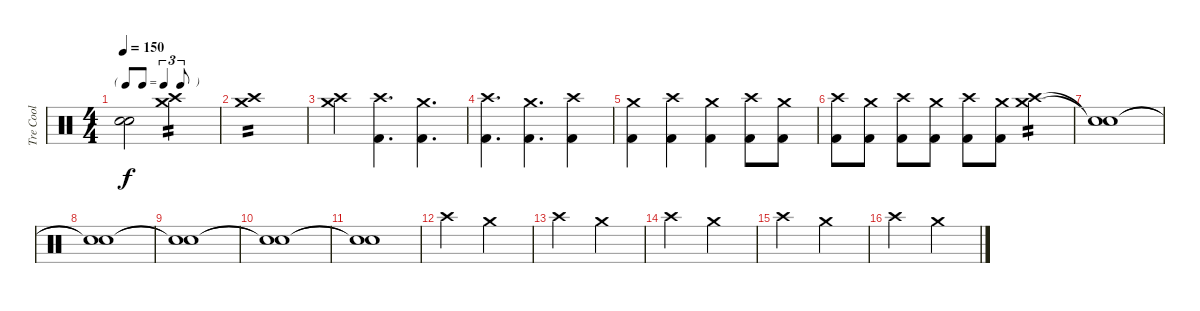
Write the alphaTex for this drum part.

\track ("Tre Cool" "Tre Cool") {instrument percussion}
\staff {score}
\articulation defaults
\ts (4 4)
\tf triplet8th
\tempo 150
\clef neutral
\ks c
("Snare (hit)"{t} "Snare (hit)"{t}).2{dy f} ("Crash high (hit)" "Crash medium (hit)").2{tp 2} |
("Crash high (hit)" "Crash medium (hit)").1{tp 2} |
("Crash high (hit)" "Crash medium (hit)").4 ("Crash high (hit)" "Kick (hit) 2").4{d} ("Crash medium (hit)" "Kick (hit) 2").4{d} |
("Crash high (hit)" "Kick (hit) 2").4{d} ("Crash medium (hit)" "Kick (hit) 2").4{d} ("Crash high (hit)" "Kick (hit) 2").4 |
("Crash medium (hit)" "Kick (hit) 2").4 ("Crash high (hit)" "Kick (hit) 2").4 ("Crash medium (hit)" "Kick (hit) 2").4 ("Crash high (hit)" "Kick (hit) 2").8 ("Crash medium (hit)" "Kick (hit) 2").8 |
("Crash high (hit)" "Kick (hit) 2").8 ("Crash medium (hit)" "Kick (hit) 2").8 ("Crash high (hit)" "Kick (hit) 2").8 ("Crash medium (hit)" "Kick (hit) 2").8 ("Crash high (hit)" "Kick (hit) 2").8 ("Crash medium (hit)" "Kick (hit) 2").8 ("Crash medium (hit)" "Crash high (hit)").4{tp 2} |
("Snare (hit)"{t} "Snare (hit)"{t}).1 |
("Snare (hit)"{t} "Snare (hit)"{t}).1 |
("Snare (hit)"{t} "Snare (hit)"{t}).1 |
("Snare (hit)"{t} "Snare (hit)"{t}).1 |
("Snare (hit)"{t} "Snare (hit)"{t}).1 |
"Crash high (hit)".2 "Crash medium (hit)".2 |
"Crash high (hit)".2 "Crash medium (hit)".2 |
"Crash high (hit)".2 "Crash medium (hit)".2 |
"Crash high (hit)".2 "Crash medium (hit)".2 |
"Crash high (hit)".2 "Crash medium (hit)".2
